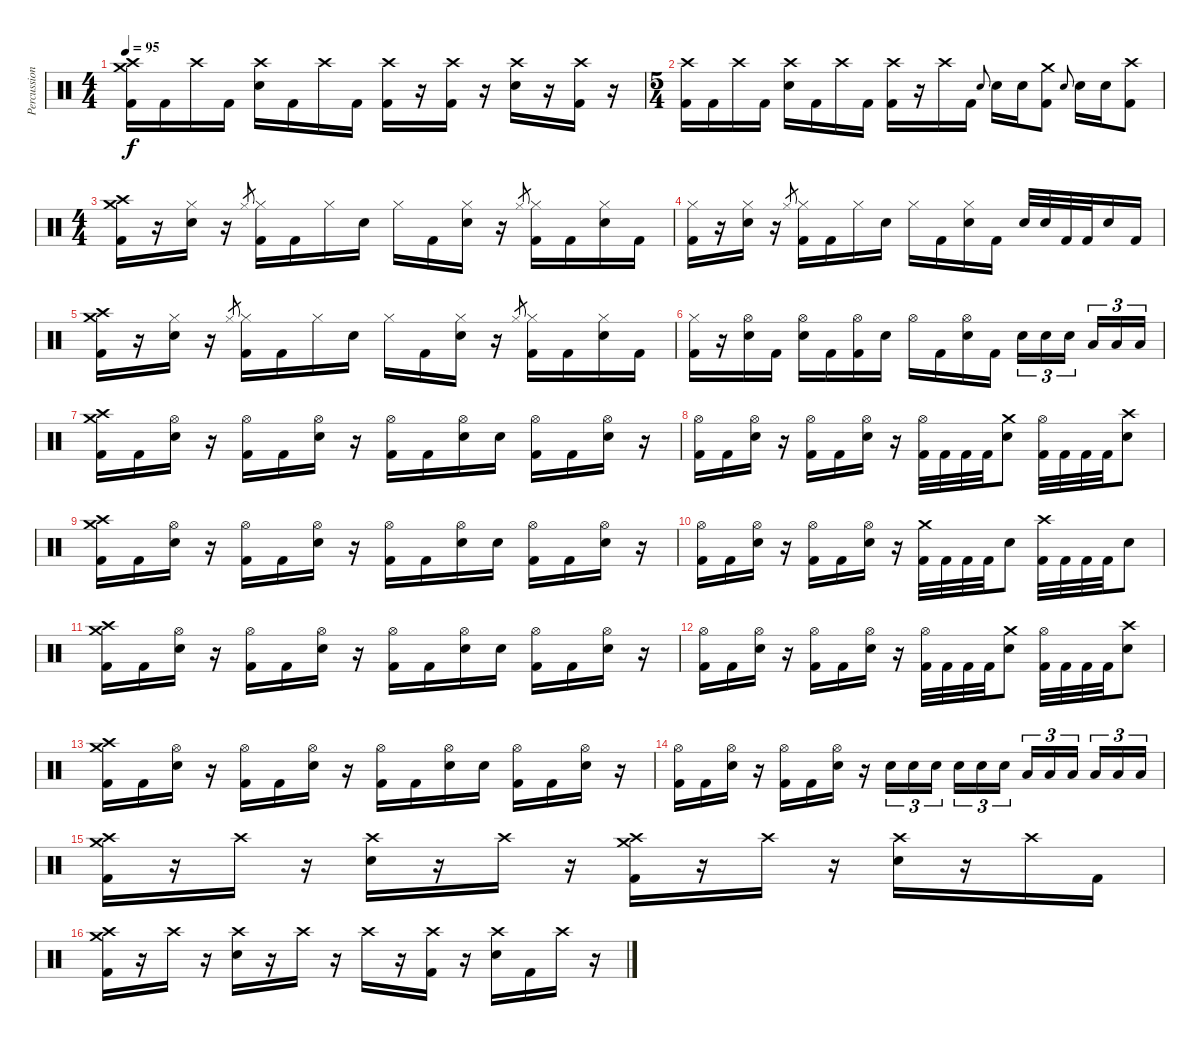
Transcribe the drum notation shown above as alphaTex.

\track ("Percussion" "Percussion") {instrument percussion}
\staff {score}
\articulation defaults
\ts (4 4)
\tempo 95
\clef neutral
\ks c
("Crash medium (hit)" "Crash high (hit)" "Kick (hit) 2").16{dy f} "Kick (hit) 2".16 "Crash high (hit)".16 "Kick (hit) 2".16 ("Crash high (hit)" "Electric Snare (hit)").16 "Kick (hit) 2".16 "Crash high (hit)".16 "Kick (hit) 2".16 ("Crash high (hit)" "Kick (hit) 2").16 r.16 ("Crash high (hit)" "Kick (hit) 2").16 r.16 ("Crash high (hit)" "Electric Snare (hit)").16 r.16 ("Crash high (hit)" "Kick (hit) 2").16 r.16 |
\ts (5 4)
("Crash high (hit)" "Kick (hit) 2").16 "Kick (hit) 2".16 "Crash high (hit)".16 "Kick (hit) 2".16 ("Crash high (hit)" "Electric Snare (hit)").16 "Kick (hit) 2".16 "Crash high (hit)".16 "Kick (hit) 2".16 ("Crash high (hit)" "Kick (hit) 2").16 r.16 "Crash high (hit)".16 "Kick (hit) 2".16 "Electric Snare (hit)".8{gr onbeat} "Electric Snare (hit)".16 "Electric Snare (hit)".16 ("Crash medium (hit)" "Kick (hit) 2").8 "Electric Snare (hit)".8{gr onbeat} "Electric Snare (hit)".16 "Electric Snare (hit)".16 ("Crash high (hit)" "Kick (hit) 2").8 |
\ts (4 4)
("Crash medium (hit)" "Crash high (hit)" "Kick (hit) 2").16 r.16 ("Hi-Hat (closed)" "Electric Snare (hit)").16 r.16 "Hi-Hat (closed)".8{gr} ("Hi-Hat (closed)" "Kick (hit) 2").16 "Kick (hit) 2".16 "Hi-Hat (closed)".16 "Electric Snare (hit)".16 "Hi-Hat (closed)".16 "Kick (hit) 2".16 ("Hi-Hat (closed)" "Electric Snare (hit)").16 r.16 "Hi-Hat (closed)".8{gr} ("Hi-Hat (closed)" "Kick (hit) 2").16 "Kick (hit) 2".16 ("Hi-Hat (closed)" "Electric Snare (hit)").16 "Kick (hit) 2".16 |
("Hi-Hat (closed)" "Kick (hit) 2").16 r.16 ("Hi-Hat (closed)" "Electric Snare (hit)").16 r.16 "Hi-Hat (closed)".8{gr} ("Hi-Hat (closed)" "Kick (hit) 2").16 "Kick (hit) 2".16 "Hi-Hat (closed)".16 "Electric Snare (hit)".16 "Hi-Hat (closed)".16 "Kick (hit) 2".16 ("Hi-Hat (closed)" "Electric Snare (hit)").16 "Kick (hit) 2".16 "Electric Snare (hit)".32 "Electric Snare (hit)".32 "Kick (hit) 2".32 "Kick (hit) 2".32 "Electric Snare (hit)".16 "Kick (hit) 2".16 |
("Crash medium (hit)" "Crash high (hit)" "Kick (hit) 2").16 r.16 ("Hi-Hat (closed)" "Electric Snare (hit)").16 r.16 "Hi-Hat (closed)".8{gr} ("Hi-Hat (closed)" "Kick (hit) 2").16 "Kick (hit) 2".16 "Hi-Hat (closed)".16 "Electric Snare (hit)".16 "Hi-Hat (closed)".16 "Kick (hit) 2".16 ("Hi-Hat (closed)" "Electric Snare (hit)").16 r.16 "Hi-Hat (closed)".8{gr} ("Hi-Hat (closed)" "Kick (hit) 2").16 "Kick (hit) 2".16 ("Hi-Hat (closed)" "Electric Snare (hit)").16 "Kick (hit) 2".16 |
("Hi-Hat (closed)" "Kick (hit) 2").16 r.16 ("Hi-Hat (open)" "Electric Snare (hit)").16 "Kick (hit) 2".16 ("Hi-Hat (open)" "Electric Snare (hit)").16 "Kick (hit) 2".16 ("Hi-Hat (open)" "Kick (hit) 2").16 "Electric Snare (hit)".16 "Hi-Hat (open)".16 "Kick (hit) 2".16 ("Hi-Hat (open)" "Electric Snare (hit)").16 "Kick (hit) 2".16 "Electric Snare (hit)".16{tu (3 2)} "Electric Snare (hit)".16{tu (3 2)} "Electric Snare (hit)".16{tu (3 2) beam splitsecondary} "Low Tom (hit)".16{tu (3 2)} "Low Tom (hit)".16{tu (3 2)} "Low Tom (hit)".16{tu (3 2)} |
("Crash medium (hit)" "Crash high (hit)" "Kick (hit) 2").16 "Kick (hit) 2".16 ("Hi-Hat (open)" "Electric Snare (hit)").16 r.16 ("Hi-Hat (open)" "Kick (hit) 2").16 "Kick (hit) 2".16 ("Hi-Hat (open)" "Electric Snare (hit)").16 r.16 ("Hi-Hat (open)" "Kick (hit) 2").16 "Kick (hit) 2".16 ("Hi-Hat (open)" "Electric Snare (hit)").16 "Electric Snare (hit)".16 ("Hi-Hat (open)" "Kick (hit) 2").16 "Kick (hit) 2".16 ("Hi-Hat (open)" "Electric Snare (hit)").16 r.16 |
("Hi-Hat (open)" "Kick (hit) 2").16 "Kick (hit) 2".16 ("Hi-Hat (open)" "Electric Snare (hit)").16 r.16 ("Hi-Hat (open)" "Kick (hit) 2").16 "Kick (hit) 2".16 ("Hi-Hat (open)" "Electric Snare (hit)").16 r.16 ("Hi-Hat (open)" "Kick (hit) 2").32 "Kick (hit) 2".32 "Kick (hit) 2".32 "Kick (hit) 2".32 ("Crash medium (hit)" "Electric Snare (hit)").8 ("Hi-Hat (open)" "Kick (hit) 2").32 "Kick (hit) 2".32 "Kick (hit) 2".32 "Kick (hit) 2".32 ("Crash high (hit)" "Electric Snare (hit)").8 |
("Crash medium (hit)" "Crash high (hit)" "Kick (hit) 2").16 "Kick (hit) 2".16 ("Hi-Hat (open)" "Electric Snare (hit)").16 r.16 ("Hi-Hat (open)" "Kick (hit) 2").16 "Kick (hit) 2".16 ("Hi-Hat (open)" "Electric Snare (hit)").16 r.16 ("Hi-Hat (open)" "Kick (hit) 2").16 "Kick (hit) 2".16 ("Hi-Hat (open)" "Electric Snare (hit)").16 "Electric Snare (hit)".16 ("Hi-Hat (open)" "Kick (hit) 2").16 "Kick (hit) 2".16 ("Hi-Hat (open)" "Electric Snare (hit)").16 r.16 |
("Hi-Hat (open)" "Kick (hit) 2").16 "Kick (hit) 2".16 ("Hi-Hat (open)" "Electric Snare (hit)").16 r.16 ("Hi-Hat (open)" "Kick (hit) 2").16 "Kick (hit) 2".16 ("Hi-Hat (open)" "Electric Snare (hit)").16 r.16 ("Crash medium (hit)" "Kick (hit) 2").32 "Kick (hit) 2".32 "Kick (hit) 2".32 "Kick (hit) 2".32 "Electric Snare (hit)".8 ("Crash high (hit)" "Kick (hit) 2").32 "Kick (hit) 2".32 "Kick (hit) 2".32 "Kick (hit) 2".32 "Electric Snare (hit)".8 |
("Crash medium (hit)" "Crash high (hit)" "Kick (hit) 2").16 "Kick (hit) 2".16 ("Hi-Hat (open)" "Electric Snare (hit)").16 r.16 ("Hi-Hat (open)" "Kick (hit) 2").16 "Kick (hit) 2".16 ("Hi-Hat (open)" "Electric Snare (hit)").16 r.16 ("Hi-Hat (open)" "Kick (hit) 2").16 "Kick (hit) 2".16 ("Hi-Hat (open)" "Electric Snare (hit)").16 "Electric Snare (hit)".16 ("Hi-Hat (open)" "Kick (hit) 2").16 "Kick (hit) 2".16 ("Hi-Hat (open)" "Electric Snare (hit)").16 r.16 |
("Hi-Hat (open)" "Kick (hit) 2").16 "Kick (hit) 2".16 ("Hi-Hat (open)" "Electric Snare (hit)").16 r.16 ("Hi-Hat (open)" "Kick (hit) 2").16 "Kick (hit) 2".16 ("Hi-Hat (open)" "Electric Snare (hit)").16 r.16 ("Hi-Hat (open)" "Kick (hit) 2").32 "Kick (hit) 2".32 "Kick (hit) 2".32 "Kick (hit) 2".32 ("Crash medium (hit)" "Electric Snare (hit)").8 ("Hi-Hat (open)" "Kick (hit) 2").32 "Kick (hit) 2".32 "Kick (hit) 2".32 "Kick (hit) 2".32 ("Crash high (hit)" "Electric Snare (hit)").8 |
("Crash medium (hit)" "Crash high (hit)" "Kick (hit) 2").16 "Kick (hit) 2".16 ("Hi-Hat (open)" "Electric Snare (hit)").16 r.16 ("Hi-Hat (open)" "Kick (hit) 2").16 "Kick (hit) 2".16 ("Hi-Hat (open)" "Electric Snare (hit)").16 r.16 ("Hi-Hat (open)" "Kick (hit) 2").16 "Kick (hit) 2".16 ("Hi-Hat (open)" "Electric Snare (hit)").16 "Electric Snare (hit)".16 ("Hi-Hat (open)" "Kick (hit) 2").16 "Kick (hit) 2".16 ("Hi-Hat (open)" "Electric Snare (hit)").16 r.16 |
("Hi-Hat (open)" "Kick (hit) 2").16 "Kick (hit) 2".16 ("Hi-Hat (open)" "Electric Snare (hit)").16 r.16 ("Hi-Hat (open)" "Kick (hit) 2").16 "Kick (hit) 2".16 ("Hi-Hat (open)" "Electric Snare (hit)").16 r.16 "Electric Snare (hit)".16{tu (3 2)} "Electric Snare (hit)".16{tu (3 2)} "Electric Snare (hit)".16{tu (3 2) beam splitsecondary} "Electric Snare (hit)".16{tu (3 2)} "Electric Snare (hit)".16{tu (3 2)} "Electric Snare (hit)".16{tu (3 2)} "Low Tom (hit)".16{tu (3 2)} "Low Tom (hit)".16{tu (3 2)} "Low Tom (hit)".16{tu (3 2) beam splitsecondary} "Low Floor Tom (hit)".16{tu (3 2)} "Low Floor Tom (hit)".16{tu (3 2)} "Low Floor Tom (hit)".16{tu (3 2)} |
("Crash medium (hit)" "Crash high (hit)" "Kick (hit) 2").16 r.16 "Crash high (hit)".16 r.16 ("Crash high (hit)" "Electric Snare (hit)").16 r.16 "Crash high (hit)".16 r.16 ("Crash medium (hit)" "Crash high (hit)" "Kick (hit) 2").16 r.16 "Crash high (hit)".16 r.16 ("Crash high (hit)" "Electric Snare (hit)").16 r.16 "Crash high (hit)".16 "Kick (hit) 2".16 |
("Crash medium (hit)" "Crash high (hit)" "Kick (hit) 2").16 r.16 "Crash high (hit)".16 r.16 ("Crash high (hit)" "Electric Snare (hit)").16 r.16 "Crash high (hit)".16 r.16 "Crash high (hit)".16 r.16 ("Crash high (hit)" "Kick (hit) 2").16 r.16 ("Crash high (hit)" "Electric Snare (hit)").16 "Kick (hit) 2".16 "Crash high (hit)".16 r.16
